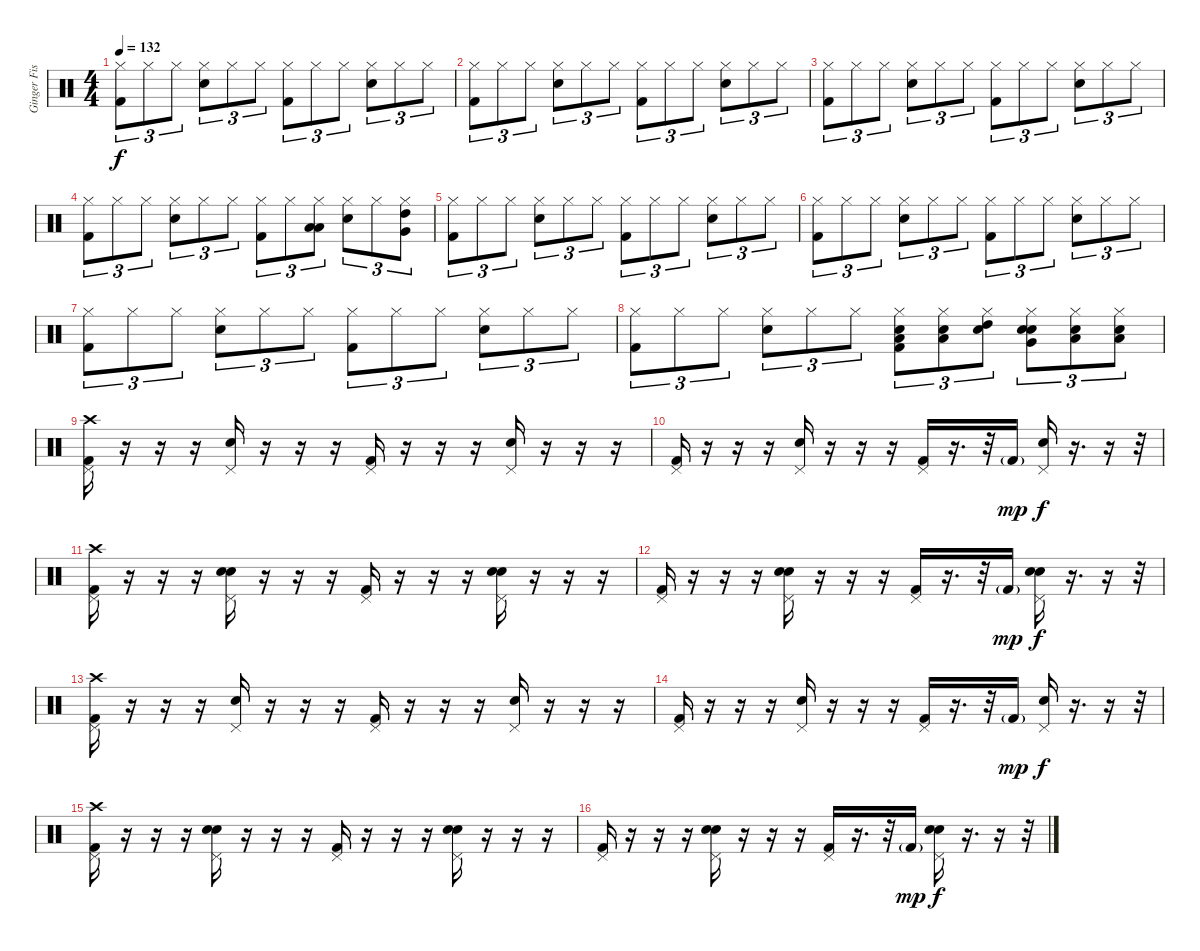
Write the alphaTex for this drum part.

\track ("Ginger Fish" "Ginger Fis") {instrument percussion}
\staff {score}
\articulation defaults
\ts (4 4)
\tempo 132
\clef neutral
\ks c
("Hi-Hat (closed)" "Kick (hit) 2").8{tu (3 2) dy f} "Hi-Hat (closed)".8{tu (3 2)} "Hi-Hat (closed)".8{tu (3 2)} ("Hi-Hat (closed)" "Snare (hit) 2").8{tu (3 2)} "Hi-Hat (closed)".8{tu (3 2)} "Hi-Hat (closed)".8{tu (3 2)} ("Hi-Hat (closed)" "Kick (hit) 2").8{tu (3 2)} "Hi-Hat (closed)".8{tu (3 2)} "Hi-Hat (closed)".8{tu (3 2)} ("Hi-Hat (closed)" "Snare (hit) 2").8{tu (3 2)} "Hi-Hat (closed)".8{tu (3 2)} "Hi-Hat (closed)".8{tu (3 2)} |
("Hi-Hat (closed)" "Kick (hit) 2").8{tu (3 2)} "Hi-Hat (closed)".8{tu (3 2)} "Hi-Hat (closed)".8{tu (3 2)} ("Hi-Hat (closed)" "Snare (hit) 2").8{tu (3 2)} "Hi-Hat (closed)".8{tu (3 2)} "Hi-Hat (closed)".8{tu (3 2)} ("Hi-Hat (closed)" "Kick (hit) 2").8{tu (3 2)} "Hi-Hat (closed)".8{tu (3 2)} "Hi-Hat (closed)".8{tu (3 2)} ("Hi-Hat (closed)" "Snare (hit) 2").8{tu (3 2)} "Hi-Hat (closed)".8{tu (3 2)} "Hi-Hat (closed)".8{tu (3 2)} |
("Hi-Hat (closed)" "Kick (hit) 2").8{tu (3 2)} "Hi-Hat (closed)".8{tu (3 2)} "Hi-Hat (closed)".8{tu (3 2)} ("Hi-Hat (closed)" "Snare (hit) 2").8{tu (3 2)} "Hi-Hat (closed)".8{tu (3 2)} "Hi-Hat (closed)".8{tu (3 2)} ("Hi-Hat (closed)" "Kick (hit) 2").8{tu (3 2)} "Hi-Hat (closed)".8{tu (3 2)} "Hi-Hat (closed)".8{tu (3 2)} ("Hi-Hat (closed)" "Snare (hit) 2").8{tu (3 2)} "Hi-Hat (closed)".8{tu (3 2)} "Hi-Hat (closed)".8{tu (3 2)} |
("Hi-Hat (closed)" "Kick (hit) 2").8{tu (3 2)} "Hi-Hat (closed)".8{tu (3 2)} "Hi-Hat (closed)".8{tu (3 2)} ("Hi-Hat (closed)" "Snare (hit) 2").8{tu (3 2)} "Hi-Hat (closed)".8{tu (3 2)} "Hi-Hat (closed)".8{tu (3 2)} ("Hi-Hat (closed)" "Kick (hit) 2").8{tu (3 2)} "Hi-Hat (closed)".8{tu (3 2)} ("Hi-Hat (closed)" "Low Floor Tom (hit)" "Low Tom (hit)").8{tu (3 2)} ("Hi-Hat (closed)" "Snare (hit) 2").8{tu (3 2)} "Hi-Hat (closed)".8{tu (3 2)} ("Hi-Hat (closed)" "Very Low Tom (hit)" "High Tom (hit)").8{tu (3 2)} |
("Hi-Hat (closed)" "Kick (hit) 2").8{tu (3 2)} "Hi-Hat (closed)".8{tu (3 2)} "Hi-Hat (closed)".8{tu (3 2)} ("Hi-Hat (closed)" "Snare (hit) 2").8{tu (3 2)} "Hi-Hat (closed)".8{tu (3 2)} "Hi-Hat (closed)".8{tu (3 2)} ("Hi-Hat (closed)" "Kick (hit) 2").8{tu (3 2)} "Hi-Hat (closed)".8{tu (3 2)} "Hi-Hat (closed)".8{tu (3 2)} ("Hi-Hat (closed)" "Snare (hit) 2").8{tu (3 2)} "Hi-Hat (closed)".8{tu (3 2)} "Hi-Hat (closed)".8{tu (3 2)} |
("Hi-Hat (closed)" "Kick (hit) 2").8{tu (3 2)} "Hi-Hat (closed)".8{tu (3 2)} "Hi-Hat (closed)".8{tu (3 2)} ("Hi-Hat (closed)" "Snare (hit) 2").8{tu (3 2)} "Hi-Hat (closed)".8{tu (3 2)} "Hi-Hat (closed)".8{tu (3 2)} ("Hi-Hat (closed)" "Kick (hit) 2").8{tu (3 2)} "Hi-Hat (closed)".8{tu (3 2)} "Hi-Hat (closed)".8{tu (3 2)} ("Hi-Hat (closed)" "Snare (hit) 2").8{tu (3 2)} "Hi-Hat (closed)".8{tu (3 2)} "Hi-Hat (closed)".8{tu (3 2)} |
("Hi-Hat (closed)" "Kick (hit) 2").8{tu (3 2)} "Hi-Hat (closed)".8{tu (3 2)} "Hi-Hat (closed)".8{tu (3 2)} ("Hi-Hat (closed)" "Snare (hit) 2").8{tu (3 2)} "Hi-Hat (closed)".8{tu (3 2)} "Hi-Hat (closed)".8{tu (3 2)} ("Hi-Hat (closed)" "Kick (hit) 2").8{tu (3 2)} "Hi-Hat (closed)".8{tu (3 2)} "Hi-Hat (closed)".8{tu (3 2)} ("Hi-Hat (closed)" "Snare (hit) 2").8{tu (3 2)} "Hi-Hat (closed)".8{tu (3 2)} "Hi-Hat (closed)".8{tu (3 2)} |
("Hi-Hat (closed)" "Kick (hit) 2").8{tu (3 2)} "Hi-Hat (closed)".8{tu (3 2)} "Hi-Hat (closed)".8{tu (3 2)} ("Hi-Hat (closed)" "Snare (hit) 2").8{tu (3 2)} "Hi-Hat (closed)".8{tu (3 2)} "Hi-Hat (closed)".8{tu (3 2)} ("Hi-Hat (closed)" "Low Tom (hit)" "Electric Snare (hit)" "Kick (hit) 2").8{tu (3 2)} ("Hi-Hat (closed)" "Low Tom (hit)" "Electric Snare (hit)").8{tu (3 2)} ("Hi-Hat (closed)" "High Tom (hit)" "Electric Snare (hit)").8{tu (3 2)} ("Hi-Hat (closed)" "Very Low Tom (hit)" "Electric Snare (hit)" "Snare (hit) 2").8{tu (3 2)} ("Hi-Hat (closed)" "Low Floor Tom (hit)" "Electric Snare (hit)").8{tu (3 2)} ("Hi-Hat (closed)" "Low Floor Tom (hit)" "Electric Snare (hit)").8{tu (3 2)} |
("Pedal Hi-Hat (hit)" "Crash high (hit)" "Kick (hit) 2").16 r.16 r.16 r.16 ("Pedal Hi-Hat (hit)" "Electric Snare (hit)").16 r.16 r.16 r.16 ("Pedal Hi-Hat (hit)" "Kick (hit) 2").16 r.16 r.16 r.16 ("Pedal Hi-Hat (hit)" "Electric Snare (hit)").16 r.16 r.16 r.16 |
("Pedal Hi-Hat (hit)" "Kick (hit) 2").16 r.16 r.16 r.16 ("Pedal Hi-Hat (hit)" "Electric Snare (hit)").16 r.16 r.16 r.16 ("Pedal Hi-Hat (hit)" "Kick (hit) 2").16 r.16{d} r.32 "Kick (hit) 2"{g}.16{dy mp} ("Pedal Hi-Hat (hit)" "Electric Snare (hit)").16{dy f} r.16{d} r.16 r.32 |
("Pedal Hi-Hat (hit)" "Crash high (hit)" "Kick (hit) 2").16 r.16 r.16 r.16 ("Pedal Hi-Hat (hit)" "Snare (hit) 2" "Hand Clap (hit)").16 r.16 r.16 r.16 ("Pedal Hi-Hat (hit)" "Kick (hit) 2").16 r.16 r.16 r.16 ("Pedal Hi-Hat (hit)" "Snare (hit) 2" "Hand Clap (hit)").16 r.16 r.16 r.16 |
("Pedal Hi-Hat (hit)" "Kick (hit) 2").16 r.16 r.16 r.16 ("Pedal Hi-Hat (hit)" "Snare (hit) 2" "Hand Clap (hit)").16 r.16 r.16 r.16 ("Pedal Hi-Hat (hit)" "Kick (hit) 2").16 r.16{d} r.32 "Kick (hit) 2"{g}.16{dy mp} ("Pedal Hi-Hat (hit)" "Snare (hit) 2" "Hand Clap (hit)").16{dy f} r.16{d} r.16 r.32 |
("Pedal Hi-Hat (hit)" "Crash high (hit)" "Kick (hit) 2").16 r.16 r.16 r.16 ("Pedal Hi-Hat (hit)" "Electric Snare (hit)").16 r.16 r.16 r.16 ("Pedal Hi-Hat (hit)" "Kick (hit) 2").16 r.16 r.16 r.16 ("Pedal Hi-Hat (hit)" "Electric Snare (hit)").16 r.16 r.16 r.16 |
("Pedal Hi-Hat (hit)" "Kick (hit) 2").16 r.16 r.16 r.16 ("Pedal Hi-Hat (hit)" "Electric Snare (hit)").16 r.16 r.16 r.16 ("Pedal Hi-Hat (hit)" "Kick (hit) 2").16 r.16{d} r.32 "Kick (hit) 2"{g}.16{dy mp} ("Pedal Hi-Hat (hit)" "Electric Snare (hit)").16{dy f} r.16{d} r.16 r.32 |
("Pedal Hi-Hat (hit)" "Crash high (hit)" "Kick (hit) 2").16 r.16 r.16 r.16 ("Pedal Hi-Hat (hit)" "Snare (hit) 2" "Hand Clap (hit)").16 r.16 r.16 r.16 ("Pedal Hi-Hat (hit)" "Kick (hit) 2").16 r.16 r.16 r.16 ("Pedal Hi-Hat (hit)" "Snare (hit) 2" "Hand Clap (hit)").16 r.16 r.16 r.16 |
("Pedal Hi-Hat (hit)" "Kick (hit) 2").16 r.16 r.16 r.16 ("Pedal Hi-Hat (hit)" "Snare (hit) 2" "Hand Clap (hit)").16 r.16 r.16 r.16 ("Pedal Hi-Hat (hit)" "Kick (hit) 2").16 r.16{d} r.32 "Kick (hit) 2"{g}.16{dy mp} ("Pedal Hi-Hat (hit)" "Snare (hit) 2" "Hand Clap (hit)").16{dy f} r.16{d} r.16 r.32
